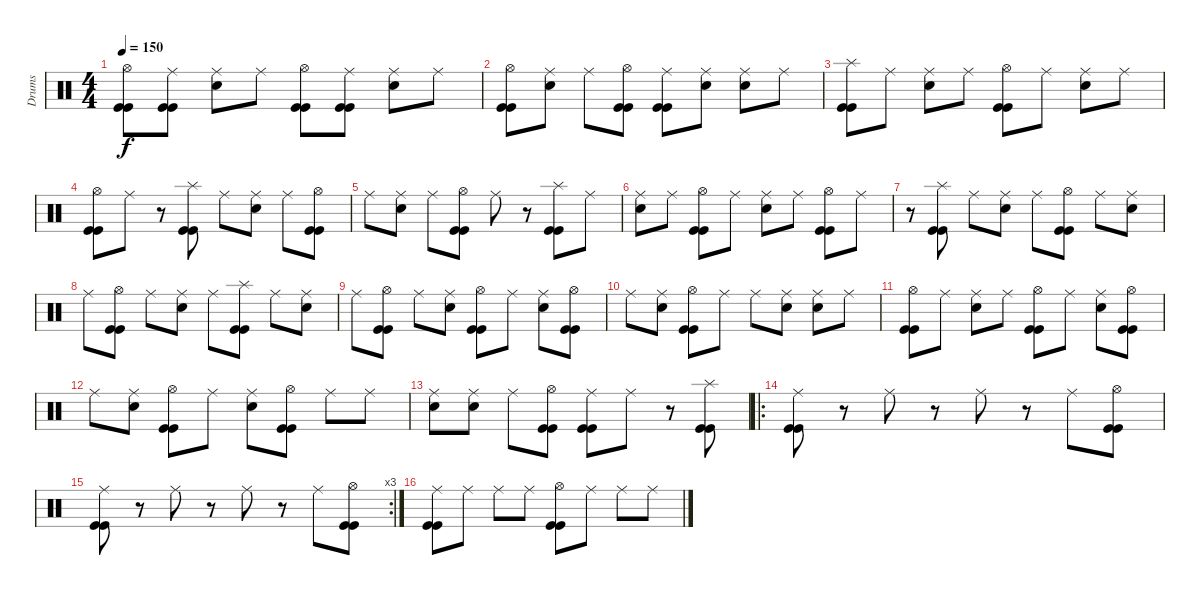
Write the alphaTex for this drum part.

\track ("Drums" "Drums") {instrument percussion}
\staff {score}
\articulation defaults
\ts (4 4)
\tempo 150
\clef neutral
\ks c
("Hi-Hat (open)" "Kick (hit)" "Kick (hit)").8{dy f} ("Ride (middle)" "Kick (hit)" "Kick (hit)").8 ("Ride (middle)" "Snare (hit) 2").8 "Ride (middle)".8 ("Hi-Hat (open)" "Kick (hit)" "Kick (hit)").8 ("Ride (middle)" "Kick (hit)" "Kick (hit)").8 ("Ride (middle)" "Snare (hit) 2").8 "Ride (middle)".8 |
("Hi-Hat (open)" "Kick (hit)" "Kick (hit)").8 ("Ride (middle)" "Snare (hit) 2").8 "Ride (middle)".8 ("Hi-Hat (open)" "Kick (hit)" "Kick (hit)").8 ("Ride (middle)" "Kick (hit)" "Kick (hit)").8 ("Ride (middle)" "Snare (hit) 2").8 ("Ride (middle)" "Snare (hit) 2").8 "Ride (middle)".8 |
("Splash (hit)" "Kick (hit)" "Kick (hit)").8 "Ride (middle)".8 ("Ride (middle)" "Snare (hit) 2").8 "Ride (middle)".8 ("Hi-Hat (open)" "Kick (hit)" "Kick (hit)").8 "Ride (middle)".8 ("Ride (middle)" "Snare (hit) 2").8 "Ride (middle)".8 |
("Hi-Hat (open)" "Kick (hit)" "Kick (hit)").8 "Ride (middle)".8 r.8 ("Splash (hit)" "Kick (hit)" "Kick (hit)").8 "Ride (middle)".8 ("Ride (middle)" "Snare (hit) 2").8 "Ride (middle)".8 ("Hi-Hat (open)" "Kick (hit)" "Kick (hit)").8 |
"Ride (middle)".8 ("Ride (middle)" "Snare (hit) 2").8 "Ride (middle)".8 ("Hi-Hat (open)" "Kick (hit)" "Kick (hit)").8 "Ride (middle)".8 r.8 ("Splash (hit)" "Kick (hit)" "Kick (hit)").8 "Ride (middle)".8 |
("Ride (middle)" "Snare (hit) 2").8 "Ride (middle)".8 ("Hi-Hat (open)" "Kick (hit)" "Kick (hit)").8 "Ride (middle)".8 ("Ride (middle)" "Snare (hit) 2").8 "Ride (middle)".8 ("Hi-Hat (open)" "Kick (hit)" "Kick (hit)").8 "Ride (middle)".8 |
r.8 ("Splash (hit)" "Kick (hit)" "Kick (hit)").8 "Ride (middle)".8 ("Ride (middle)" "Snare (hit) 2").8 "Ride (middle)".8 ("Hi-Hat (open)" "Kick (hit)" "Kick (hit)").8 "Ride (middle)".8 ("Ride (middle)" "Snare (hit) 2").8 |
"Ride (middle)".8 ("Hi-Hat (open)" "Kick (hit)" "Kick (hit)").8 "Ride (middle)".8 ("Ride (middle)" "Snare (hit) 2").8 "Ride (middle)".8 ("Splash (hit)" "Kick (hit)" "Kick (hit)").8 "Ride (middle)".8 ("Ride (middle)" "Snare (hit) 2").8 |
"Ride (middle)".8 ("Hi-Hat (open)" "Kick (hit)" "Kick (hit)").8 "Ride (middle)".8 ("Ride (middle)" "Snare (hit) 2").8 ("Hi-Hat (open)" "Kick (hit)" "Kick (hit)").8 "Ride (middle)".8 ("Ride (middle)" "Snare (hit) 2").8 ("Hi-Hat (open)" "Kick (hit)" "Kick (hit)").8 |
"Ride (middle)".8 ("Ride (middle)" "Snare (hit) 2").8 ("Hi-Hat (open)" "Kick (hit)" "Kick (hit)").8 "Ride (middle)".8 "Ride (middle)".8 ("Ride (middle)" "Snare (hit) 2").8 ("Ride (middle)" "Snare (hit) 2").8 "Ride (middle)".8 |
("Hi-Hat (open)" "Kick (hit)" "Kick (hit)").8 "Ride (middle)".8 ("Ride (middle)" "Snare (hit) 2").8 "Ride (middle)".8 ("Hi-Hat (open)" "Kick (hit)" "Kick (hit)").8 "Ride (middle)".8 ("Ride (middle)" "Snare (hit) 2").8 ("Hi-Hat (open)" "Kick (hit)" "Kick (hit)").8 |
"Ride (middle)".8 ("Ride (middle)" "Snare (hit) 2").8 ("Hi-Hat (open)" "Kick (hit)" "Kick (hit)").8 "Ride (middle)".8 ("Ride (middle)" "Snare (hit) 2").8 ("Hi-Hat (open)" "Kick (hit)" "Kick (hit)").8 "Ride (middle)".8 "Ride (middle)".8 |
("Ride (middle)" "Snare (hit) 2").8 ("Ride (middle)" "Snare (hit) 2").8 "Ride (middle)".8 ("Hi-Hat (open)" "Kick (hit)" "Kick (hit)").8 ("Ride (middle)" "Kick (hit)" "Kick (hit)").8 "Ride (middle)".8 r.8 ("Splash (hit)" "Kick (hit)" "Kick (hit)").8 |
\ro
("Ride (middle)" "Kick (hit)" "Kick (hit)").8 r.8 "Ride (middle)".8 r.8 "Ride (middle)".8 r.8 "Ride (middle)".8 ("Hi-Hat (open)" "Kick (hit)" "Kick (hit)").8 |
\rc 3
("Ride (middle)" "Kick (hit)" "Kick (hit)").8 r.8 "Ride (middle)".8 r.8 "Ride (middle)".8 r.8 "Ride (middle)".8 ("Hi-Hat (open)" "Kick (hit)" "Kick (hit)").8 |
("Ride (middle)" "Kick (hit)" "Kick (hit)").8 "Ride (middle)".8 "Ride (middle)".8 "Ride (middle)".8 ("Hi-Hat (open)" "Kick (hit)" "Kick (hit)").8 "Ride (middle)".8 "Ride (middle)".8 "Ride (middle)".8
